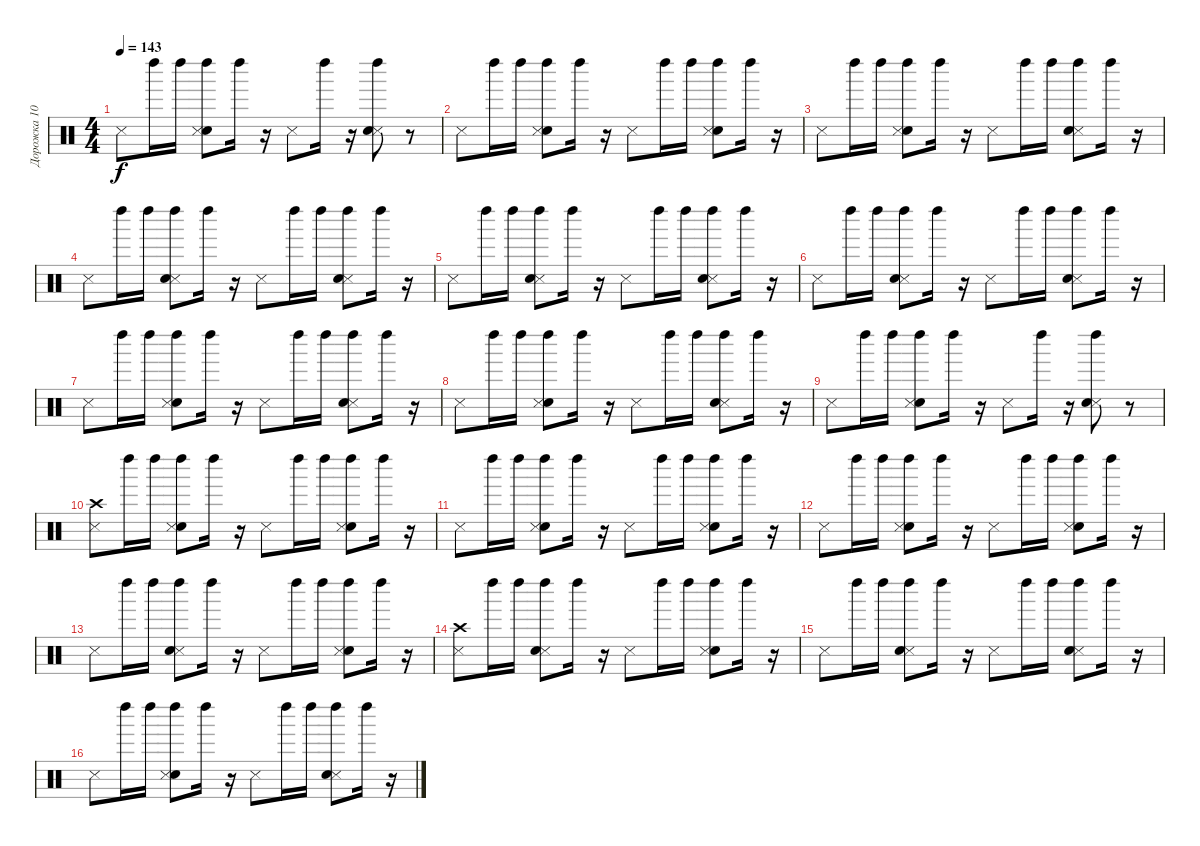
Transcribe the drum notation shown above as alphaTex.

\track ("Дорожка 10" "Дорожка 10") {instrument percussion}
\staff {score}
\articulation defaults
\ts (4 4)
\tempo 143
\clef neutral
\ks c "Metronome (hit)".8{dy f} "Left Maraca (hit)".16 "Left Maraca (hit)".16
("Electric Snare (hit)" "Metronome (hit)" "Left Maraca (hit)").8 "Left Maraca (hit)".16 r.16 "Metronome (hit)".8 "Left Maraca (hit)".16 r.16 ("Metronome (hit)" "Electric Snare (hit)" "Left Maraca (hit)").8 r.8 |
"Metronome (hit)".8 "Left Maraca (hit)".16 "Left Maraca (hit)".16 ("Electric Snare (hit)" "Metronome (hit)" "Left Maraca (hit)").8 "Left Maraca (hit)".16 r.16 "Metronome (hit)".8 "Left Maraca (hit)".16 "Left Maraca (hit)".16 ("Electric Snare (hit)" "Metronome (hit)" "Left Maraca (hit)").8 "Left Maraca (hit)".16 r.16 |
"Metronome (hit)".8 "Left Maraca (hit)".16 "Left Maraca (hit)".16 ("Electric Snare (hit)" "Metronome (hit)" "Left Maraca (hit)").8 "Left Maraca (hit)".16 r.16 "Metronome (hit)".8 "Left Maraca (hit)".16 "Left Maraca (hit)".16 ("Metronome (hit)" "Electric Snare (hit)" "Left Maraca (hit)").8 "Left Maraca (hit)".16 r.16 |
"Metronome (hit)".8 "Left Maraca (hit)".16 "Left Maraca (hit)".16 ("Metronome (hit)" "Electric Snare (hit)" "Left Maraca (hit)").8 "Left Maraca (hit)".16 r.16 "Metronome (hit)".8 "Left Maraca (hit)".16 "Left Maraca (hit)".16 ("Metronome (hit)" "Electric Snare (hit)" "Left Maraca (hit)").8 "Left Maraca (hit)".16 r.16 |
"Metronome (hit)".8 "Left Maraca (hit)".16 "Left Maraca (hit)".16 ("Metronome (hit)" "Electric Snare (hit)" "Left Maraca (hit)").8 "Left Maraca (hit)".16 r.16 "Metronome (hit)".8 "Left Maraca (hit)".16 "Left Maraca (hit)".16 ("Metronome (hit)" "Electric Snare (hit)" "Left Maraca (hit)").8 "Left Maraca (hit)".16 r.16 |
"Metronome (hit)".8 "Left Maraca (hit)".16 "Left Maraca (hit)".16 ("Metronome (hit)" "Electric Snare (hit)" "Left Maraca (hit)").8 "Left Maraca (hit)".16 r.16 "Metronome (hit)".8 "Left Maraca (hit)".16 "Left Maraca (hit)".16 ("Metronome (hit)" "Electric Snare (hit)" "Left Maraca (hit)").8 "Left Maraca (hit)".16 r.16 |
"Metronome (hit)".8 "Left Maraca (hit)".16 "Left Maraca (hit)".16 ("Electric Snare (hit)" "Metronome (hit)" "Left Maraca (hit)").8 "Left Maraca (hit)".16 r.16 "Metronome (hit)".8 "Left Maraca (hit)".16 "Left Maraca (hit)".16 ("Metronome (hit)" "Electric Snare (hit)" "Left Maraca (hit)").8 "Left Maraca (hit)".16 r.16 |
"Metronome (hit)".8 "Left Maraca (hit)".16 "Left Maraca (hit)".16 ("Electric Snare (hit)" "Metronome (hit)" "Left Maraca (hit)").8 "Left Maraca (hit)".16 r.16 "Metronome (hit)".8 "Left Maraca (hit)".16 "Left Maraca (hit)".16 ("Metronome (hit)" "Electric Snare (hit)" "Left Maraca (hit)").8 "Left Maraca (hit)".16 r.16 |
"Metronome (hit)".8 "Left Maraca (hit)".16 "Left Maraca (hit)".16 ("Electric Snare (hit)" "Metronome (hit)" "Left Maraca (hit)").8 "Left Maraca (hit)".16 r.16 "Metronome (hit)".8 "Left Maraca (hit)".16 r.16 ("Metronome (hit)" "Electric Snare (hit)" "Left Maraca (hit)").8 r.8 |
("Metronome (hit)" "Crash high (hit)").8 "Left Maraca (hit)".16 "Left Maraca (hit)".16 ("Electric Snare (hit)" "Metronome (hit)" "Left Maraca (hit)").8 "Left Maraca (hit)".16 r.16 "Metronome (hit)".8 "Left Maraca (hit)".16 "Left Maraca (hit)".16 ("Electric Snare (hit)" "Metronome (hit)" "Left Maraca (hit)").8 "Left Maraca (hit)".16 r.16 |
"Metronome (hit)".8 "Left Maraca (hit)".16 "Left Maraca (hit)".16 ("Electric Snare (hit)" "Metronome (hit)" "Left Maraca (hit)").8 "Left Maraca (hit)".16 r.16 "Metronome (hit)".8 "Left Maraca (hit)".16 "Left Maraca (hit)".16 ("Electric Snare (hit)" "Metronome (hit)" "Left Maraca (hit)").8 "Left Maraca (hit)".16 r.16 |
"Metronome (hit)".8 "Left Maraca (hit)".16 "Left Maraca (hit)".16 ("Electric Snare (hit)" "Metronome (hit)" "Left Maraca (hit)").8 "Left Maraca (hit)".16 r.16 "Metronome (hit)".8 "Left Maraca (hit)".16 "Left Maraca (hit)".16 ("Electric Snare (hit)" "Metronome (hit)" "Left Maraca (hit)").8 "Left Maraca (hit)".16 r.16 |
"Metronome (hit)".8 "Left Maraca (hit)".16 "Left Maraca (hit)".16 ("Metronome (hit)" "Electric Snare (hit)" "Left Maraca (hit)").8 "Left Maraca (hit)".16 r.16 "Metronome (hit)".8 "Left Maraca (hit)".16 "Left Maraca (hit)".16 ("Electric Snare (hit)" "Metronome (hit)" "Left Maraca (hit)").8 "Left Maraca (hit)".16 r.16 |
("Metronome (hit)" "Crash high (hit)").8 "Left Maraca (hit)".16 "Left Maraca (hit)".16 ("Metronome (hit)" "Electric Snare (hit)" "Left Maraca (hit)").8 "Left Maraca (hit)".16 r.16 "Metronome (hit)".8 "Left Maraca (hit)".16 "Left Maraca (hit)".16 ("Electric Snare (hit)" "Metronome (hit)" "Left Maraca (hit)").8 "Left Maraca (hit)".16 r.16 |
"Metronome (hit)".8 "Left Maraca (hit)".16 "Left Maraca (hit)".16 ("Metronome (hit)" "Electric Snare (hit)" "Left Maraca (hit)").8 "Left Maraca (hit)".16 r.16 "Metronome (hit)".8 "Left Maraca (hit)".16 "Left Maraca (hit)".16 ("Metronome (hit)" "Electric Snare (hit)" "Left Maraca (hit)").8 "Left Maraca (hit)".16 r.16 |
"Metronome (hit)".8 "Left Maraca (hit)".16 "Left Maraca (hit)".16 ("Electric Snare (hit)" "Metronome (hit)" "Left Maraca (hit)").8 "Left Maraca (hit)".16 r.16 "Metronome (hit)".8 "Left Maraca (hit)".16 "Left Maraca (hit)".16 ("Metronome (hit)" "Electric Snare (hit)" "Left Maraca (hit)").8 "Left Maraca (hit)".16 r.16
